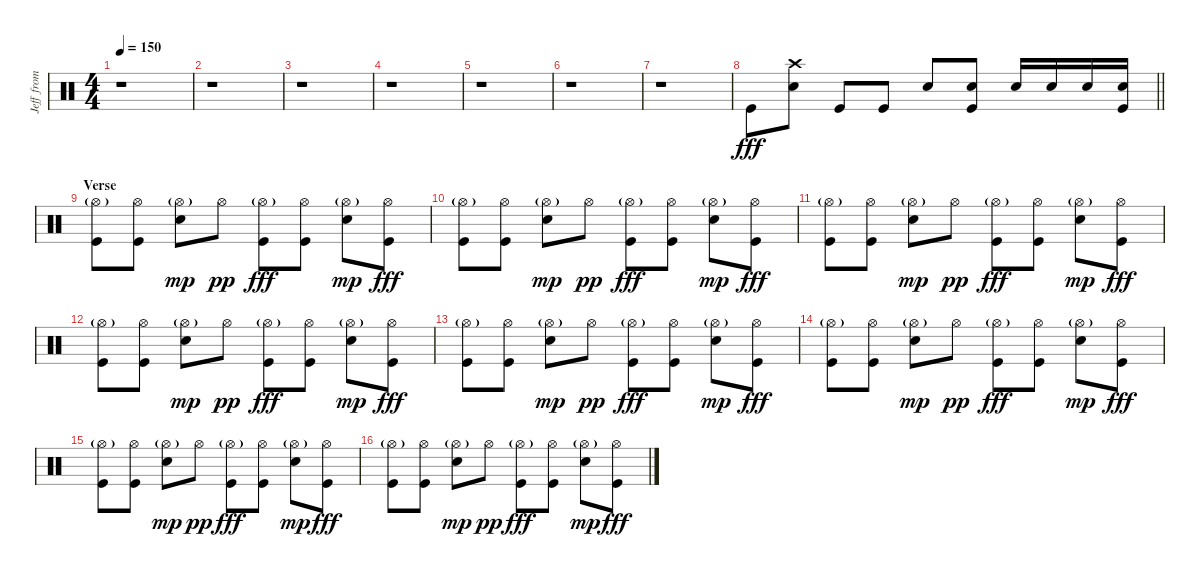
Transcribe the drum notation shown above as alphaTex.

\track ("Jeff from Chelsea - Drum" "Jeff from ") {instrument percussion bank 27}
\staff {score}
\articulation defaults
\ts (4 4)
\tempo 150
\clef neutral
\ks c
r.1{dy fff} |
r.1 |
r.1 |
r.1 |
r.1 |
r.1 |
r.1 |
\barLineRight lightlight "Kick (hit)".8
("Crash high (hit)" "Snare (hit) 2").8 "Kick (hit)".8 "Kick (hit)".8 "Snare (hit) 2".8 ("Snare (hit) 2" "Kick (hit)").8 "Snare (hit) 2".16 "Snare (hit) 2".16 "Snare (hit) 2".16 ("Snare (hit) 2" "Kick (hit)").16 |
\section ("" "Verse")
("Hi-Hat (open)"{g} "Kick (hit)").8 ("Hi-Hat (open)" "Kick (hit)").8 ("Hi-Hat (open)"{g} "Snare (hit) 2").8{dy mp} "Hi-Hat (open)".8{dy pp} ("Hi-Hat (open)"{g} "Kick (hit)").8{dy fff} ("Hi-Hat (open)" "Kick (hit)").8 ("Hi-Hat (open)"{g} "Snare (hit) 2").8{dy mp} ("Hi-Hat (open)" "Kick (hit)").8{dy fff} |
("Hi-Hat (open)"{g} "Kick (hit)").8 ("Hi-Hat (open)" "Kick (hit)").8 ("Hi-Hat (open)"{g} "Snare (hit) 2").8{dy mp} "Hi-Hat (open)".8{dy pp} ("Hi-Hat (open)"{g} "Kick (hit)").8{dy fff} ("Hi-Hat (open)" "Kick (hit)").8 ("Hi-Hat (open)"{g} "Snare (hit) 2").8{dy mp} ("Hi-Hat (open)" "Kick (hit)").8{dy fff} |
("Hi-Hat (open)"{g} "Kick (hit)").8 ("Hi-Hat (open)" "Kick (hit)").8 ("Hi-Hat (open)"{g} "Snare (hit) 2").8{dy mp} "Hi-Hat (open)".8{dy pp} ("Hi-Hat (open)"{g} "Kick (hit)").8{dy fff} ("Hi-Hat (open)" "Kick (hit)").8 ("Hi-Hat (open)"{g} "Snare (hit) 2").8{dy mp} ("Hi-Hat (open)" "Kick (hit)").8{dy fff} |
("Hi-Hat (open)"{g} "Kick (hit)").8 ("Hi-Hat (open)" "Kick (hit)").8 ("Hi-Hat (open)"{g} "Snare (hit) 2").8{dy mp} "Hi-Hat (open)".8{dy pp} ("Hi-Hat (open)"{g} "Kick (hit)").8{dy fff} ("Hi-Hat (open)" "Kick (hit)").8 ("Hi-Hat (open)"{g} "Snare (hit) 2").8{dy mp} ("Hi-Hat (open)" "Kick (hit)").8{dy fff} |
("Hi-Hat (open)"{g} "Kick (hit)").8 ("Hi-Hat (open)" "Kick (hit)").8 ("Hi-Hat (open)"{g} "Snare (hit) 2").8{dy mp} "Hi-Hat (open)".8{dy pp} ("Hi-Hat (open)"{g} "Kick (hit)").8{dy fff} ("Hi-Hat (open)" "Kick (hit)").8 ("Hi-Hat (open)"{g} "Snare (hit) 2").8{dy mp} ("Hi-Hat (open)" "Kick (hit)").8{dy fff} |
("Hi-Hat (open)"{g} "Kick (hit)").8 ("Hi-Hat (open)" "Kick (hit)").8 ("Hi-Hat (open)"{g} "Snare (hit) 2").8{dy mp} "Hi-Hat (open)".8{dy pp} ("Hi-Hat (open)"{g} "Kick (hit)").8{dy fff} ("Hi-Hat (open)" "Kick (hit)").8 ("Hi-Hat (open)"{g} "Snare (hit) 2").8{dy mp} ("Hi-Hat (open)" "Kick (hit)").8{dy fff} |
("Hi-Hat (open)"{g} "Kick (hit)").8 ("Hi-Hat (open)" "Kick (hit)").8 ("Hi-Hat (open)"{g} "Snare (hit) 2").8{dy mp} "Hi-Hat (open)".8{dy pp} ("Hi-Hat (open)"{g} "Kick (hit)").8{dy fff} ("Hi-Hat (open)" "Kick (hit)").8 ("Hi-Hat (open)"{g} "Snare (hit) 2").8{dy mp} ("Hi-Hat (open)" "Kick (hit)").8{dy fff} |
("Hi-Hat (open)"{g} "Kick (hit)").8 ("Hi-Hat (open)" "Kick (hit)").8 ("Hi-Hat (open)"{g} "Snare (hit) 2").8{dy mp} "Hi-Hat (open)".8{dy pp} ("Hi-Hat (open)"{g} "Kick (hit)").8{dy fff} ("Hi-Hat (open)" "Kick (hit)").8 ("Hi-Hat (open)"{g} "Snare (hit) 2").8{dy mp} ("Hi-Hat (open)" "Kick (hit)").8{dy fff}
